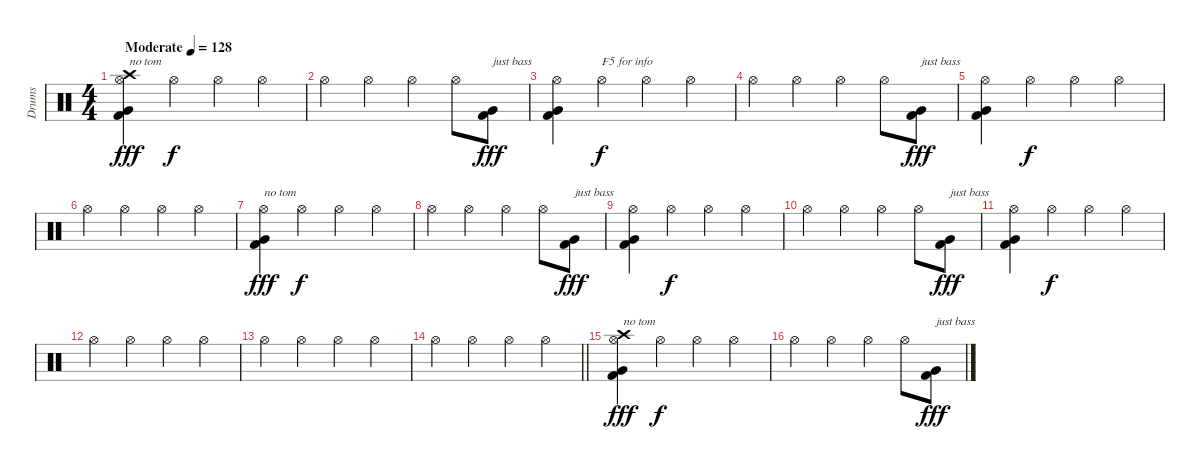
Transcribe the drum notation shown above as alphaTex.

\track ("Drums" "Drums") {instrument percussion}
\staff {score}
\articulation defaults
\ts (4 4)
\tempo (128 "Moderate")
\clef neutral
\ks c
("Crash high (hit)" "Hi-Hat (open)" "Very Low Tom (hit)" "Kick (hit) 2").4{txt "no tom " dy fff} "Hi-Hat (open)".4{dy f} "Hi-Hat (open)".4 "Hi-Hat (open)".4 |
"Hi-Hat (open)".4 "Hi-Hat (open)".4 "Hi-Hat (open)".4 "Hi-Hat (open)".8 ("Very Low Tom (hit)" "Kick (hit) 2").8{txt "just bass" dy fff} |
("Hi-Hat (open)" "Very Low Tom (hit)" "Kick (hit) 2").4 "Hi-Hat (open)".4{txt "F5 for info" dy f} "Hi-Hat (open)".4 "Hi-Hat (open)".4 |
"Hi-Hat (open)".4 "Hi-Hat (open)".4 "Hi-Hat (open)".4 "Hi-Hat (open)".8 ("Very Low Tom (hit)" "Kick (hit) 2").8{txt "just bass" dy fff} |
("Hi-Hat (open)" "Very Low Tom (hit)" "Kick (hit) 2").4 "Hi-Hat (open)".4{dy f} "Hi-Hat (open)".4 "Hi-Hat (open)".4 |
"Hi-Hat (open)".4 "Hi-Hat (open)".4 "Hi-Hat (open)".4 "Hi-Hat (open)".4 |
("Hi-Hat (open)" "Very Low Tom (hit)" "Kick (hit) 2").4{txt "no tom" dy fff} "Hi-Hat (open)".4{dy f} "Hi-Hat (open)".4 "Hi-Hat (open)".4 |
"Hi-Hat (open)".4 "Hi-Hat (open)".4 "Hi-Hat (open)".4 "Hi-Hat (open)".8 ("Very Low Tom (hit)" "Kick (hit) 2").8{txt "just bass" dy fff} |
("Hi-Hat (open)" "Very Low Tom (hit)" "Kick (hit) 2").4 "Hi-Hat (open)".4{dy f} "Hi-Hat (open)".4 "Hi-Hat (open)".4 |
"Hi-Hat (open)".4 "Hi-Hat (open)".4 "Hi-Hat (open)".4 "Hi-Hat (open)".8 ("Very Low Tom (hit)" "Kick (hit) 2").8{txt "just bass" dy fff} |
("Hi-Hat (open)" "Very Low Tom (hit)" "Kick (hit) 2").4 "Hi-Hat (open)".4{dy f} "Hi-Hat (open)".4 "Hi-Hat (open)".4 |
"Hi-Hat (open)".4 "Hi-Hat (open)".4 "Hi-Hat (open)".4 "Hi-Hat (open)".4 |
"Hi-Hat (open)".4 "Hi-Hat (open)".4 "Hi-Hat (open)".4 "Hi-Hat (open)".4 |
\barLineRight lightlight "Hi-Hat (open)".4 "Hi-Hat (open)".4 "Hi-Hat (open)".4 "Hi-Hat (open)".4
|
("Crash high (hit)" "Hi-Hat (open)" "Very Low Tom (hit)" "Kick (hit) 2").4{txt "no tom " dy fff} "Hi-Hat (open)".4{dy f} "Hi-Hat (open)".4 "Hi-Hat (open)".4 |
"Hi-Hat (open)".4 "Hi-Hat (open)".4 "Hi-Hat (open)".4 "Hi-Hat (open)".8 ("Very Low Tom (hit)" "Kick (hit) 2").8{txt "just bass" dy fff}
